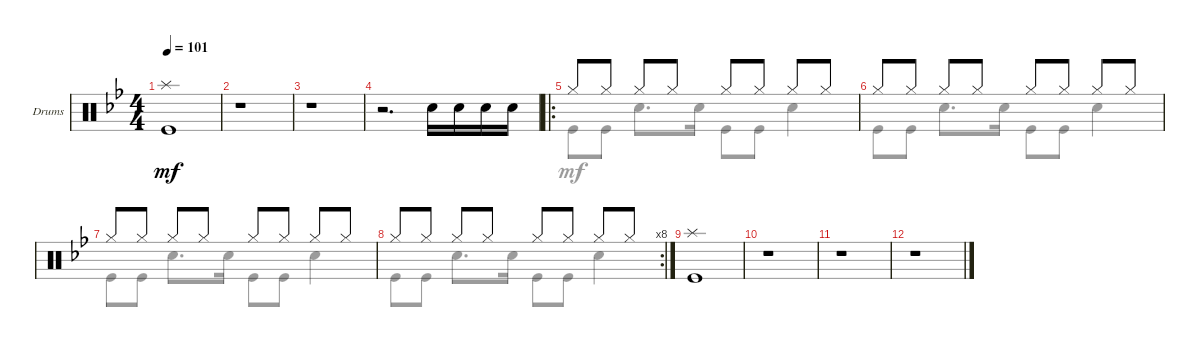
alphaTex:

\defaultSystemsLayout 4
\bracketExtendMode groupsimilarinstruments
\firstSystemTrackNameOrientation horizontal
\otherSystemsTrackNameOrientation horizontal
\track ("Drumkit" "Drums") {instrument percussion}
\staff {score}
\articulation defaults
\voice
\ts (4 4)
\tempo 101
\clef neutral
\ks gminor
("Splash (hit)" "Kick (hit)").1{dy mf} |
r.1 |
r.1 |
r.2{d} "Snare (hit) 2".16 "Snare (hit) 2".16 "Snare (hit) 2".16 "Snare (hit) 2".16 |
\ro "Hi-Hat (closed)".8 "Hi-Hat (closed)".8 "Hi-Hat (closed)".8 "Hi-Hat (closed)".8 "Hi-Hat (closed)".8 "Hi-Hat (closed)".8 "Hi-Hat (closed)".8 "Hi-Hat (closed)".8
|
"Hi-Hat (closed)".8 "Hi-Hat (closed)".8 "Hi-Hat (closed)".8 "Hi-Hat (closed)".8 "Hi-Hat (closed)".8 "Hi-Hat (closed)".8 "Hi-Hat (closed)".8 "Hi-Hat (closed)".8 |
"Hi-Hat (closed)".8 "Hi-Hat (closed)".8 "Hi-Hat (closed)".8 "Hi-Hat (closed)".8 "Hi-Hat (closed)".8 "Hi-Hat (closed)".8 "Hi-Hat (closed)".8 "Hi-Hat (closed)".8 |
\rc 8 "Hi-Hat (closed)".8 "Hi-Hat (closed)".8 "Hi-Hat (closed)".8 "Hi-Hat (closed)".8 "Hi-Hat (closed)".8 "Hi-Hat (closed)".8 "Hi-Hat (closed)".8 "Hi-Hat (closed)".8
|
("Splash (hit)" "Kick (hit)").1 |
r.1 |
r.1 |
r.1 |
\voice
\clef neutral
\ottava regular
\simile none
\ks gminor
|
|
|
|
"Kick (hit)".8 "Kick (hit)".8 "Snare (hit) 2".8{d} "Snare (hit) 2".16 "Kick (hit)".8 "Kick (hit)".8 "Snare (hit) 2".4 |
"Kick (hit)".8 "Kick (hit)".8 "Snare (hit) 2".8{d} "Snare (hit) 2".16 "Kick (hit)".8 "Kick (hit)".8 "Snare (hit) 2".4 |
"Kick (hit)".8 "Kick (hit)".8 "Snare (hit) 2".8{d} "Snare (hit) 2".16 "Kick (hit)".8 "Kick (hit)".8 "Snare (hit) 2".4 |
"Kick (hit)".8 "Kick (hit)".8 "Snare (hit) 2".8{d} "Snare (hit) 2".16 "Kick (hit)".8 "Kick (hit)".8 "Snare (hit) 2".4 |
|
|
|
|
